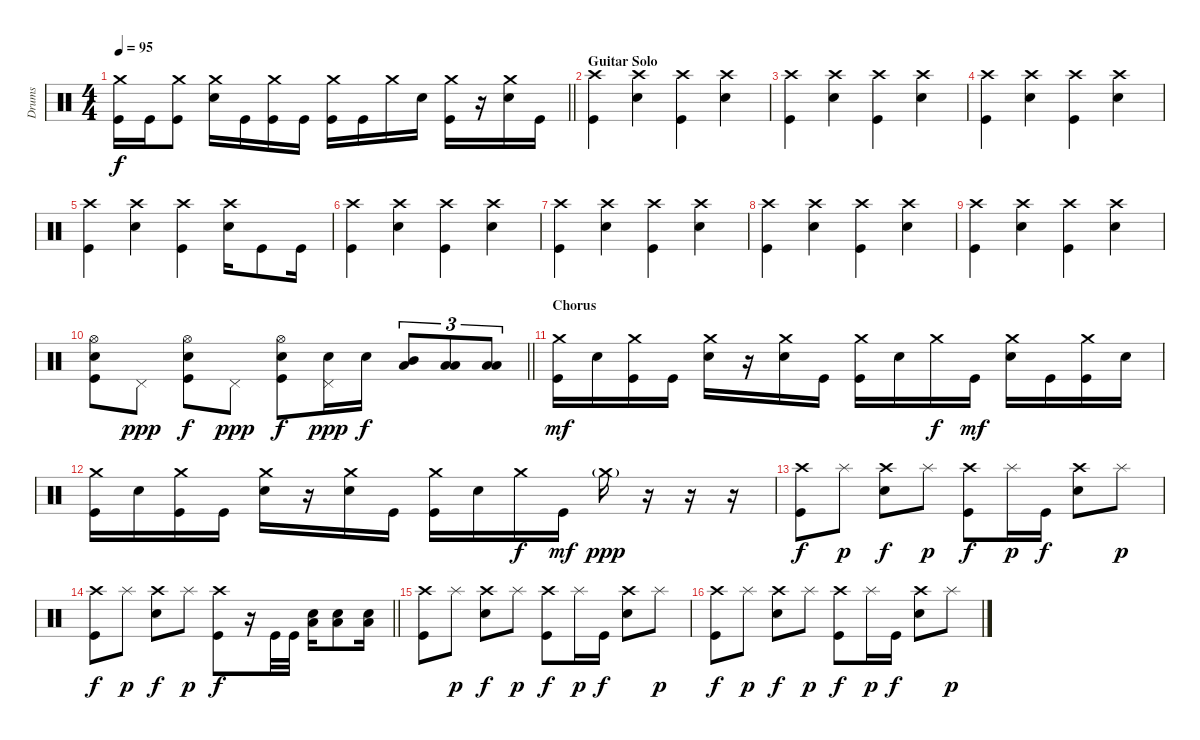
\track ("Drums" "Drums") {instrument percussion}
\staff {score}
\articulation defaults
\ts (4 4)
\tempo 95
\clef neutral
\barLineRight lightlight
\ks c
("Crash medium (hit)" "Kick (hit)").16{dy f} "Kick (hit)".16 ("Crash medium (hit)" "Kick (hit)").8 ("Crash medium (hit)" "Snare (hit) 2").16 "Kick (hit)".16 ("Crash medium (hit)" "Kick (hit)").16 "Kick (hit)".16 ("Crash medium (hit)" "Kick (hit)").16 "Kick (hit)".16 "Crash medium (hit)".16 "Snare (hit) 2".16 ("Crash medium (hit)" "Kick (hit)").16 r.16 ("Crash medium (hit)" "Snare (hit) 2").16 "Kick (hit)".16 |
\section ("" "Guitar Solo")
("Crash high (hit)" "Kick (hit)").4 ("Crash high (hit)" "Snare (hit) 2").4 ("Crash high (hit)" "Kick (hit)").4 ("Crash high (hit)" "Snare (hit) 2").4 |
("Crash high (hit)" "Kick (hit)").4 ("Crash high (hit)" "Snare (hit) 2").4 ("Crash high (hit)" "Kick (hit)").4 ("Crash high (hit)" "Snare (hit) 2").4 |
("Crash high (hit)" "Kick (hit)").4 ("Crash high (hit)" "Snare (hit) 2").4 ("Crash high (hit)" "Kick (hit)").4 ("Crash high (hit)" "Snare (hit) 2").4 |
("Crash high (hit)" "Kick (hit)").4 ("Crash high (hit)" "Snare (hit) 2").4 ("Crash high (hit)" "Kick (hit)").4 ("Crash high (hit)" "Snare (hit) 2").16 "Kick (hit)".8 "Kick (hit)".16 |
("Crash high (hit)" "Kick (hit)").4 ("Crash high (hit)" "Snare (hit) 2").4 ("Crash high (hit)" "Kick (hit)").4 ("Crash high (hit)" "Snare (hit) 2").4 |
("Crash high (hit)" "Kick (hit)").4 ("Crash high (hit)" "Snare (hit) 2").4 ("Crash high (hit)" "Kick (hit)").4 ("Crash high (hit)" "Snare (hit) 2").4 |
("Crash high (hit)" "Kick (hit)").4 ("Crash high (hit)" "Snare (hit) 2").4 ("Crash high (hit)" "Kick (hit)").4 ("Crash high (hit)" "Snare (hit) 2").4 |
("Crash high (hit)" "Kick (hit)").4 ("Crash high (hit)" "Snare (hit) 2").4 ("Crash high (hit)" "Kick (hit)").4 ("Crash high (hit)" "Snare (hit) 2").4 |
\barLineRight lightlight
("Hi-Hat (open)" "Snare (hit) 2" "Kick (hit)").8 "Pedal Hi-Hat (hit)".8{dy ppp} ("Hi-Hat (open)" "Snare (hit) 2" "Kick (hit)").8{dy f} "Pedal Hi-Hat (hit)".8{dy ppp} ("Hi-Hat (open)" "Snare (hit) 2" "Kick (hit)").8{dy f} ("Pedal Hi-Hat (hit)" "Snare (hit) 2").16{dy ppp} "Snare (hit) 2".16{dy f} ("Mid Tom (hit)" "Low Floor Tom (hit)").8{tu (3 2)} ("Low Tom (hit)" "Low Floor Tom (hit)").8{tu (3 2)} ("Low Floor Tom (hit)" "Low Floor Tom (hit)").8{tu (3 2)} |
\section ("" "Chorus")
("Crash medium (hit)" "Kick (hit)").16{dy mf} "Snare (hit) 2".16 ("Crash medium (hit)" "Kick (hit)").16 "Kick (hit)".16 ("Crash medium (hit)" "Snare (hit) 2").16 r.16 ("Crash medium (hit)" "Snare (hit) 2").16 "Kick (hit)".16 ("Crash medium (hit)" "Kick (hit)").16 "Snare (hit) 2".16 "Crash medium (hit)".16{dy f} "Kick (hit)".16{dy mf} ("Crash medium (hit)" "Snare (hit) 2").16 "Kick (hit)".16 ("Crash medium (hit)" "Kick (hit)").16 "Snare (hit) 2".16 |
("Crash medium (hit)" "Kick (hit)").16 "Snare (hit) 2".16 ("Crash medium (hit)" "Kick (hit)").16 "Kick (hit)".16 ("Crash medium (hit)" "Snare (hit) 2").16 r.16 ("Crash medium (hit)" "Snare (hit) 2").16 "Kick (hit)".16 ("Crash medium (hit)" "Kick (hit)").16 "Snare (hit) 2".16 "Crash medium (hit)".16{dy f} "Kick (hit)".16{dy mf} "Crash medium (hit)"{g}.16{dy ppp} r.16 r.16 r.16 |
("Crash high (hit)" "Kick (hit)").8{dy f} "Splash (hit)".8{dy p} ("Crash high (hit)" "Snare (hit) 2").8{dy f} "Splash (hit)".8{dy p} ("Crash high (hit)" "Kick (hit)").8{dy f} "Splash (hit)".16{dy p} "Kick (hit)".16{dy f} ("Crash high (hit)" "Snare (hit) 2").8 "Splash (hit)".8{dy p} |
\barLineRight lightlight
("Crash high (hit)" "Kick (hit)").8{dy f} "Splash (hit)".8{dy p} ("Crash high (hit)" "Snare (hit) 2").8{dy f} "Splash (hit)".8{dy p} ("Crash high (hit)" "Kick (hit)").8{dy f} r.16 "Kick (hit)".32 "Kick (hit)".32 ("Snare (hit) 2" "Low Floor Tom (hit)").16 ("Snare (hit) 2" "Low Floor Tom (hit)").8 ("Snare (hit) 2" "Low Floor Tom (hit)").16 |
("Crash high (hit)" "Kick (hit)").8 "Splash (hit)".8{dy p} ("Crash high (hit)" "Snare (hit) 2").8{dy f} "Splash (hit)".8{dy p} ("Crash high (hit)" "Kick (hit)").8{dy f} "Splash (hit)".16{dy p} "Kick (hit)".16{dy f} ("Crash high (hit)" "Snare (hit) 2").8 "Splash (hit)".8{dy p} |
("Crash high (hit)" "Kick (hit)").8{dy f} "Splash (hit)".8{dy p} ("Crash high (hit)" "Snare (hit) 2").8{dy f} "Splash (hit)".8{dy p} ("Crash high (hit)" "Kick (hit)").8{dy f} "Splash (hit)".16{dy p} "Kick (hit)".16{dy f} ("Crash high (hit)" "Snare (hit) 2").8 "Splash (hit)".8{dy p}
